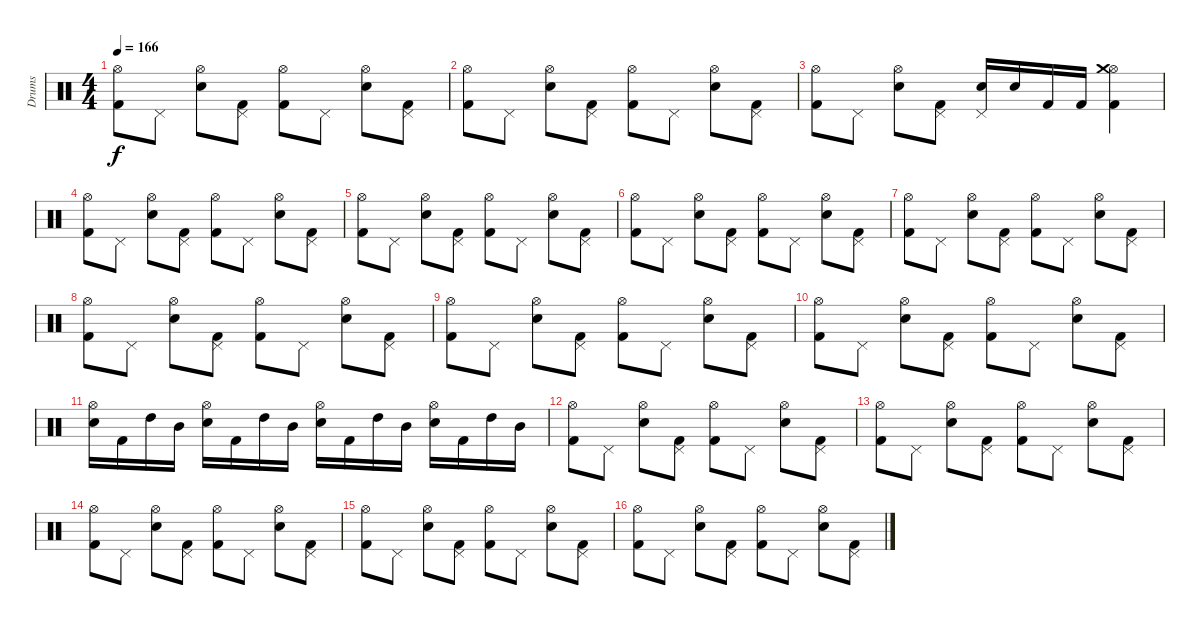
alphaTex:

\track ("Drums" "Drums") {instrument percussion}
\staff {score}
\articulation defaults
\ts (4 4)
\tempo 166
\clef neutral
\ks c
("Kick (hit) 2" "Hi-Hat (open)").8{dy f} "Pedal Hi-Hat (hit)".8 ("Snare (hit) 2" "Hi-Hat (open)").8 ("Kick (hit) 2" "Pedal Hi-Hat (hit)").8 ("Kick (hit) 2" "Hi-Hat (open)").8 "Pedal Hi-Hat (hit)".8 ("Snare (hit) 2" "Hi-Hat (open)").8 ("Kick (hit) 2" "Pedal Hi-Hat (hit)").8 |
("Kick (hit) 2" "Hi-Hat (open)").8 "Pedal Hi-Hat (hit)".8 ("Snare (hit) 2" "Hi-Hat (open)").8 ("Kick (hit) 2" "Pedal Hi-Hat (hit)").8 ("Kick (hit) 2" "Hi-Hat (open)").8 "Pedal Hi-Hat (hit)".8 ("Snare (hit) 2" "Hi-Hat (open)").8 ("Kick (hit) 2" "Pedal Hi-Hat (hit)").8 |
("Kick (hit) 2" "Hi-Hat (open)").8 "Pedal Hi-Hat (hit)".8 ("Snare (hit) 2" "Hi-Hat (open)").8 ("Kick (hit) 2" "Pedal Hi-Hat (hit)").8 ("Snare (hit) 2" "Pedal Hi-Hat (hit)").16 "Snare (hit) 2".16 "Kick (hit) 2".16 "Kick (hit) 2".16 ("Kick (hit) 2" "Hi-Hat (open)" "Crash medium (hit)").4 |
("Kick (hit) 2" "Hi-Hat (open)").8 "Pedal Hi-Hat (hit)".8 ("Snare (hit) 2" "Hi-Hat (open)").8 ("Kick (hit) 2" "Pedal Hi-Hat (hit)").8 ("Kick (hit) 2" "Hi-Hat (open)").8 "Pedal Hi-Hat (hit)".8 ("Snare (hit) 2" "Hi-Hat (open)").8 ("Kick (hit) 2" "Pedal Hi-Hat (hit)").8 |
("Kick (hit) 2" "Hi-Hat (open)").8 "Pedal Hi-Hat (hit)".8 ("Snare (hit) 2" "Hi-Hat (open)").8 ("Kick (hit) 2" "Pedal Hi-Hat (hit)").8 ("Kick (hit) 2" "Hi-Hat (open)").8 "Pedal Hi-Hat (hit)".8 ("Snare (hit) 2" "Hi-Hat (open)").8 ("Kick (hit) 2" "Pedal Hi-Hat (hit)").8 |
("Kick (hit) 2" "Hi-Hat (open)").8 "Pedal Hi-Hat (hit)".8 ("Snare (hit) 2" "Hi-Hat (open)").8 ("Kick (hit) 2" "Pedal Hi-Hat (hit)").8 ("Kick (hit) 2" "Hi-Hat (open)").8 "Pedal Hi-Hat (hit)".8 ("Snare (hit) 2" "Hi-Hat (open)").8 ("Kick (hit) 2" "Pedal Hi-Hat (hit)").8 |
("Kick (hit) 2" "Hi-Hat (open)").8 "Pedal Hi-Hat (hit)".8 ("Snare (hit) 2" "Hi-Hat (open)").8 ("Kick (hit) 2" "Pedal Hi-Hat (hit)").8 ("Kick (hit) 2" "Hi-Hat (open)").8 "Pedal Hi-Hat (hit)".8 ("Snare (hit) 2" "Hi-Hat (open)").8 ("Kick (hit) 2" "Pedal Hi-Hat (hit)").8 |
("Kick (hit) 2" "Hi-Hat (open)").8 "Pedal Hi-Hat (hit)".8 ("Snare (hit) 2" "Hi-Hat (open)").8 ("Kick (hit) 2" "Pedal Hi-Hat (hit)").8 ("Kick (hit) 2" "Hi-Hat (open)").8 "Pedal Hi-Hat (hit)".8 ("Snare (hit) 2" "Hi-Hat (open)").8 ("Kick (hit) 2" "Pedal Hi-Hat (hit)").8 |
("Kick (hit) 2" "Hi-Hat (open)").8 "Pedal Hi-Hat (hit)".8 ("Snare (hit) 2" "Hi-Hat (open)").8 ("Kick (hit) 2" "Pedal Hi-Hat (hit)").8 ("Kick (hit) 2" "Hi-Hat (open)").8 "Pedal Hi-Hat (hit)".8 ("Snare (hit) 2" "Hi-Hat (open)").8 ("Kick (hit) 2" "Pedal Hi-Hat (hit)").8 |
("Kick (hit) 2" "Hi-Hat (open)").8 "Pedal Hi-Hat (hit)".8 ("Snare (hit) 2" "Hi-Hat (open)").8 ("Kick (hit) 2" "Pedal Hi-Hat (hit)").8 ("Kick (hit) 2" "Hi-Hat (open)").8 "Pedal Hi-Hat (hit)".8 ("Snare (hit) 2" "Hi-Hat (open)").8 ("Kick (hit) 2" "Pedal Hi-Hat (hit)").8 |
("Snare (hit) 2" "Hi-Hat (open)").16 "Kick (hit) 2".16 "High Tom (hit)".16 "Mid Tom (hit)".16 ("Snare (hit) 2" "Hi-Hat (open)").16 "Kick (hit) 2".16 "High Tom (hit)".16 "Mid Tom (hit)".16 ("Snare (hit) 2" "Hi-Hat (open)").16 "Kick (hit) 2".16 "High Tom (hit)".16 "Mid Tom (hit)".16 ("Snare (hit) 2" "Hi-Hat (open)").16 "Kick (hit) 2".16 "High Tom (hit)".16 "Mid Tom (hit)".16 |
("Kick (hit) 2" "Hi-Hat (open)").8 "Pedal Hi-Hat (hit)".8 ("Snare (hit) 2" "Hi-Hat (open)").8 ("Kick (hit) 2" "Pedal Hi-Hat (hit)").8 ("Kick (hit) 2" "Hi-Hat (open)").8 "Pedal Hi-Hat (hit)".8 ("Snare (hit) 2" "Hi-Hat (open)").8 ("Kick (hit) 2" "Pedal Hi-Hat (hit)").8 |
("Kick (hit) 2" "Hi-Hat (open)").8 "Pedal Hi-Hat (hit)".8 ("Snare (hit) 2" "Hi-Hat (open)").8 ("Kick (hit) 2" "Pedal Hi-Hat (hit)").8 ("Kick (hit) 2" "Hi-Hat (open)").8 "Pedal Hi-Hat (hit)".8 ("Snare (hit) 2" "Hi-Hat (open)").8 ("Kick (hit) 2" "Pedal Hi-Hat (hit)").8 |
("Kick (hit) 2" "Hi-Hat (open)").8 "Pedal Hi-Hat (hit)".8 ("Snare (hit) 2" "Hi-Hat (open)").8 ("Kick (hit) 2" "Pedal Hi-Hat (hit)").8 ("Kick (hit) 2" "Hi-Hat (open)").8 "Pedal Hi-Hat (hit)".8 ("Snare (hit) 2" "Hi-Hat (open)").8 ("Kick (hit) 2" "Pedal Hi-Hat (hit)").8 |
("Kick (hit) 2" "Hi-Hat (open)").8 "Pedal Hi-Hat (hit)".8 ("Snare (hit) 2" "Hi-Hat (open)").8 ("Kick (hit) 2" "Pedal Hi-Hat (hit)").8 ("Kick (hit) 2" "Hi-Hat (open)").8 "Pedal Hi-Hat (hit)".8 ("Snare (hit) 2" "Hi-Hat (open)").8 ("Kick (hit) 2" "Pedal Hi-Hat (hit)").8 |
("Kick (hit) 2" "Hi-Hat (open)").8 "Pedal Hi-Hat (hit)".8 ("Snare (hit) 2" "Hi-Hat (open)").8 ("Kick (hit) 2" "Pedal Hi-Hat (hit)").8 ("Kick (hit) 2" "Hi-Hat (open)").8 "Pedal Hi-Hat (hit)".8 ("Snare (hit) 2" "Hi-Hat (open)").8 ("Kick (hit) 2" "Pedal Hi-Hat (hit)").8
